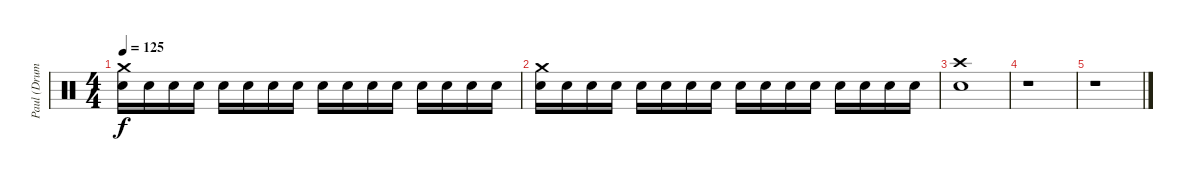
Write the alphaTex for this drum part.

\track ("Paul (Drums)" "Paul (Drum") {instrument percussion}
\staff {score}
\articulation defaults
\ts (4 4)
\tempo 125
\clef neutral
\ks c
("Crash medium (hit)" "Snare (hit) 2").16{dy f} "Snare (hit) 2".16 "Snare (hit) 2".16 "Snare (hit) 2".16 "Snare (hit) 2".16 "Snare (hit) 2".16 "Snare (hit) 2".16 "Snare (hit) 2".16 "Snare (hit) 2".16 "Snare (hit) 2".16 "Snare (hit) 2".16 "Snare (hit) 2".16 "Snare (hit) 2".16 "Snare (hit) 2".16 "Snare (hit) 2".16 "Snare (hit) 2".16 |
("Crash medium (hit)" "Snare (hit) 2").16 "Snare (hit) 2".16 "Snare (hit) 2".16 "Snare (hit) 2".16 "Snare (hit) 2".16 "Snare (hit) 2".16 "Snare (hit) 2".16 "Snare (hit) 2".16 "Snare (hit) 2".16 "Snare (hit) 2".16 "Snare (hit) 2".16 "Snare (hit) 2".16 "Snare (hit) 2".16 "Snare (hit) 2".16 "Snare (hit) 2".16 "Snare (hit) 2".16 |
("Crash high (hit)" "Snare (hit) 2").1 |
r.1 |
r.1
